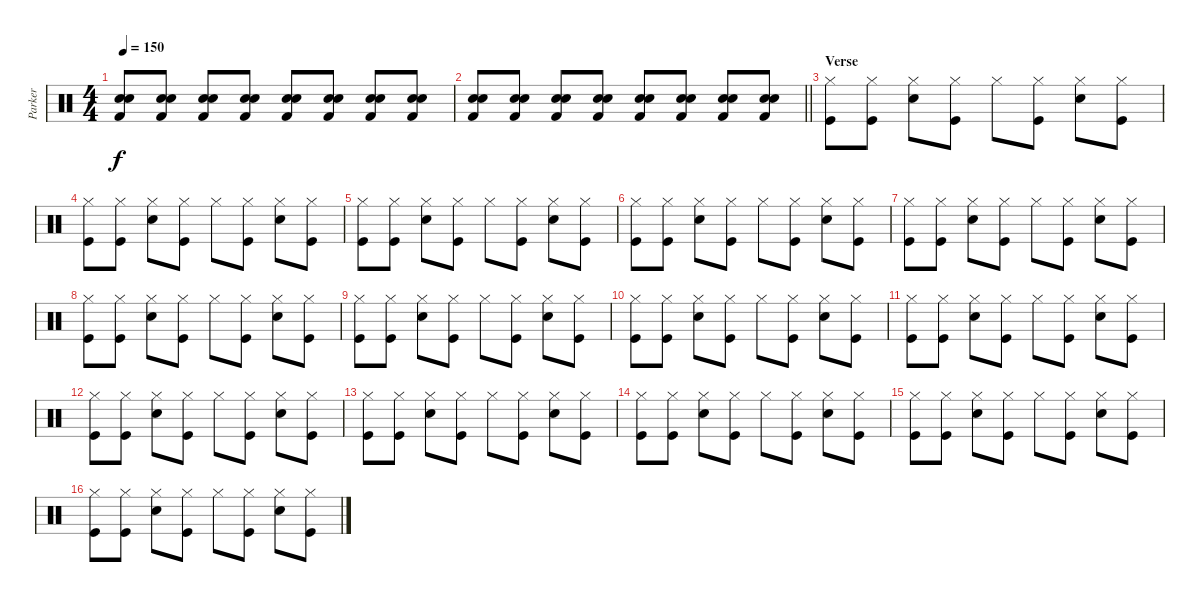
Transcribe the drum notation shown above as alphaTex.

\track ("Parker" "Parker") {instrument percussion}
\staff {score}
\articulation defaults
\ts (4 4)
\tempo 150
\clef neutral
\ks c
("Snare (hit) 2" "Snare (hit) 2" "Kick (hit) 2").8{dy f volume 16} ("Snare (hit) 2" "Snare (hit) 2" "Kick (hit) 2").8 ("Snare (hit) 2" "Snare (hit) 2" "Kick (hit) 2").8 ("Snare (hit) 2" "Snare (hit) 2" "Kick (hit) 2").8 ("Snare (hit) 2" "Snare (hit) 2" "Kick (hit) 2").8 ("Snare (hit) 2" "Snare (hit) 2" "Kick (hit) 2").8 ("Snare (hit) 2" "Snare (hit) 2" "Kick (hit) 2").8 ("Snare (hit) 2" "Snare (hit) 2" "Kick (hit) 2").8 |
\barLineRight lightlight
("Snare (hit) 2" "Snare (hit) 2" "Kick (hit) 2").8 ("Snare (hit) 2" "Snare (hit) 2" "Kick (hit) 2").8 ("Snare (hit) 2" "Snare (hit) 2" "Kick (hit) 2").8 ("Snare (hit) 2" "Snare (hit) 2" "Kick (hit) 2").8 ("Snare (hit) 2" "Snare (hit) 2" "Kick (hit) 2").8 ("Snare (hit) 2" "Snare (hit) 2" "Kick (hit) 2").8 ("Snare (hit) 2" "Snare (hit) 2" "Kick (hit) 2").8 ("Snare (hit) 2" "Snare (hit) 2" "Kick (hit) 2").8 |
\section ("" "Verse")
("Hi-Hat (closed)" "Kick (hit)").8 ("Hi-Hat (closed)" "Kick (hit)").8 ("Hi-Hat (closed)" "Electric Snare (hit)").8 ("Hi-Hat (closed)" "Kick (hit)").8 "Hi-Hat (closed)".8 ("Hi-Hat (closed)" "Kick (hit)").8 ("Hi-Hat (closed)" "Electric Snare (hit)").8 ("Hi-Hat (closed)" "Kick (hit)").8 |
("Hi-Hat (closed)" "Kick (hit)").8 ("Hi-Hat (closed)" "Kick (hit)").8 ("Hi-Hat (closed)" "Electric Snare (hit)").8 ("Hi-Hat (closed)" "Kick (hit)").8 "Hi-Hat (closed)".8 ("Hi-Hat (closed)" "Kick (hit)").8 ("Hi-Hat (closed)" "Electric Snare (hit)").8 ("Hi-Hat (closed)" "Kick (hit)").8 |
("Hi-Hat (closed)" "Kick (hit)").8 ("Hi-Hat (closed)" "Kick (hit)").8 ("Hi-Hat (closed)" "Electric Snare (hit)").8 ("Hi-Hat (closed)" "Kick (hit)").8 "Hi-Hat (closed)".8 ("Hi-Hat (closed)" "Kick (hit)").8 ("Hi-Hat (closed)" "Electric Snare (hit)").8 ("Hi-Hat (closed)" "Kick (hit)").8 |
("Hi-Hat (closed)" "Kick (hit)").8 ("Hi-Hat (closed)" "Kick (hit)").8 ("Hi-Hat (closed)" "Electric Snare (hit)").8 ("Hi-Hat (closed)" "Kick (hit)").8 "Hi-Hat (closed)".8 ("Hi-Hat (closed)" "Kick (hit)").8 ("Hi-Hat (closed)" "Electric Snare (hit)").8 ("Hi-Hat (closed)" "Kick (hit)").8 |
("Hi-Hat (closed)" "Kick (hit)").8 ("Hi-Hat (closed)" "Kick (hit)").8 ("Hi-Hat (closed)" "Electric Snare (hit)").8 ("Hi-Hat (closed)" "Kick (hit)").8 "Hi-Hat (closed)".8 ("Hi-Hat (closed)" "Kick (hit)").8 ("Hi-Hat (closed)" "Electric Snare (hit)").8 ("Hi-Hat (closed)" "Kick (hit)").8 |
("Hi-Hat (closed)" "Kick (hit)").8 ("Hi-Hat (closed)" "Kick (hit)").8 ("Hi-Hat (closed)" "Electric Snare (hit)").8 ("Hi-Hat (closed)" "Kick (hit)").8 "Hi-Hat (closed)".8 ("Hi-Hat (closed)" "Kick (hit)").8 ("Hi-Hat (closed)" "Electric Snare (hit)").8 ("Hi-Hat (closed)" "Kick (hit)").8 |
("Hi-Hat (closed)" "Kick (hit)").8 ("Hi-Hat (closed)" "Kick (hit)").8 ("Hi-Hat (closed)" "Electric Snare (hit)").8 ("Hi-Hat (closed)" "Kick (hit)").8 "Hi-Hat (closed)".8 ("Hi-Hat (closed)" "Kick (hit)").8 ("Hi-Hat (closed)" "Electric Snare (hit)").8 ("Hi-Hat (closed)" "Kick (hit)").8 |
("Hi-Hat (closed)" "Kick (hit)").8 ("Hi-Hat (closed)" "Kick (hit)").8 ("Hi-Hat (closed)" "Electric Snare (hit)").8 ("Hi-Hat (closed)" "Kick (hit)").8 "Hi-Hat (closed)".8 ("Hi-Hat (closed)" "Kick (hit)").8 ("Hi-Hat (closed)" "Electric Snare (hit)").8 ("Hi-Hat (closed)" "Kick (hit)").8 |
("Hi-Hat (closed)" "Kick (hit)").8 ("Hi-Hat (closed)" "Kick (hit)").8 ("Hi-Hat (closed)" "Electric Snare (hit)").8 ("Hi-Hat (closed)" "Kick (hit)").8 "Hi-Hat (closed)".8 ("Hi-Hat (closed)" "Kick (hit)").8 ("Hi-Hat (closed)" "Electric Snare (hit)").8 ("Hi-Hat (closed)" "Kick (hit)").8 |
("Hi-Hat (closed)" "Kick (hit)").8 ("Hi-Hat (closed)" "Kick (hit)").8 ("Hi-Hat (closed)" "Electric Snare (hit)").8 ("Hi-Hat (closed)" "Kick (hit)").8 "Hi-Hat (closed)".8 ("Hi-Hat (closed)" "Kick (hit)").8 ("Hi-Hat (closed)" "Electric Snare (hit)").8 ("Hi-Hat (closed)" "Kick (hit)").8 |
("Hi-Hat (closed)" "Kick (hit)").8 ("Hi-Hat (closed)" "Kick (hit)").8 ("Hi-Hat (closed)" "Electric Snare (hit)").8 ("Hi-Hat (closed)" "Kick (hit)").8 "Hi-Hat (closed)".8 ("Hi-Hat (closed)" "Kick (hit)").8 ("Hi-Hat (closed)" "Electric Snare (hit)").8 ("Hi-Hat (closed)" "Kick (hit)").8 |
("Hi-Hat (closed)" "Kick (hit)").8 ("Hi-Hat (closed)" "Kick (hit)").8 ("Hi-Hat (closed)" "Electric Snare (hit)").8 ("Hi-Hat (closed)" "Kick (hit)").8 "Hi-Hat (closed)".8 ("Hi-Hat (closed)" "Kick (hit)").8 ("Hi-Hat (closed)" "Electric Snare (hit)").8 ("Hi-Hat (closed)" "Kick (hit)").8 |
("Hi-Hat (closed)" "Kick (hit)").8 ("Hi-Hat (closed)" "Kick (hit)").8 ("Hi-Hat (closed)" "Electric Snare (hit)").8 ("Hi-Hat (closed)" "Kick (hit)").8 "Hi-Hat (closed)".8 ("Hi-Hat (closed)" "Kick (hit)").8 ("Hi-Hat (closed)" "Electric Snare (hit)").8 ("Hi-Hat (closed)" "Kick (hit)").8 |
("Hi-Hat (closed)" "Kick (hit)").8 ("Hi-Hat (closed)" "Kick (hit)").8 ("Hi-Hat (closed)" "Electric Snare (hit)").8 ("Hi-Hat (closed)" "Kick (hit)").8 "Hi-Hat (closed)".8 ("Hi-Hat (closed)" "Kick (hit)").8 ("Hi-Hat (closed)" "Electric Snare (hit)").8 ("Hi-Hat (closed)" "Kick (hit)").8
